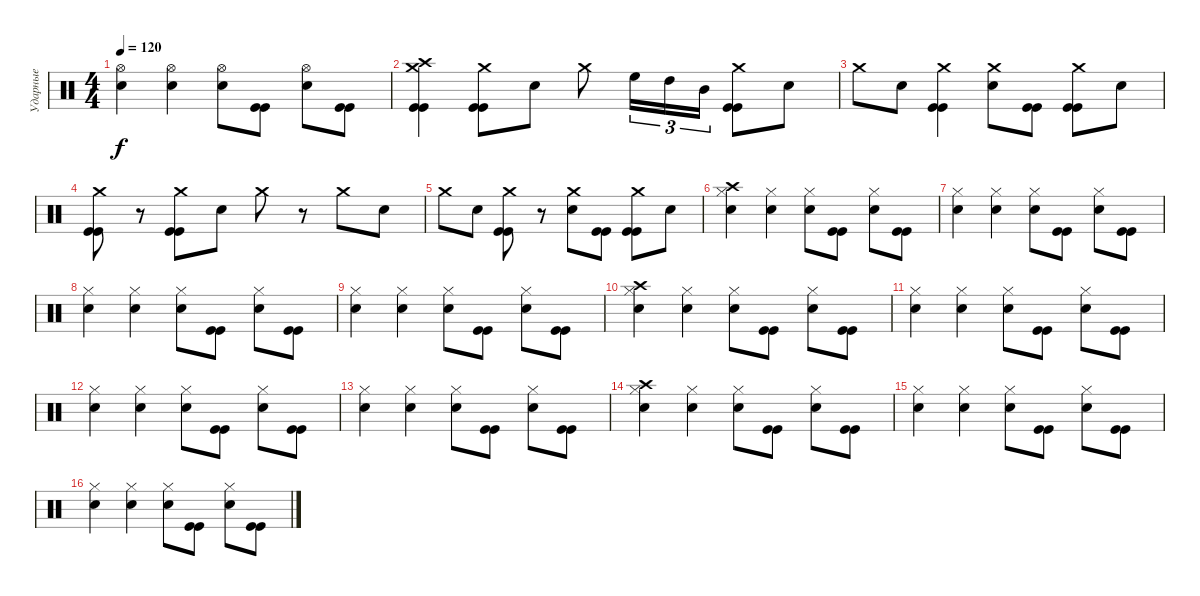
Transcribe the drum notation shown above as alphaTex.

\track ("Ударные" "Ударные") {instrument percussion}
\staff {score}
\articulation defaults
\ts (4 4)
\tempo 120
\clef neutral
\ks c
("Hi-Hat (open)" "Electric Snare (hit)").4{dy f} ("Hi-Hat (open)" "Electric Snare (hit)").4 ("Hi-Hat (open)" "Electric Snare (hit)").8 ("Kick (hit)" "Kick (hit)").8 ("Hi-Hat (open)" "Electric Snare (hit)").8 ("Kick (hit)" "Kick (hit)").8 |
("Crash high (hit)" "Crash medium (hit)" "Kick (hit)" "Kick (hit)").4 ("Crash medium (hit)" "Kick (hit)" "Kick (hit)").8 "Electric Snare (hit)".8 "Crash medium (hit)".8 "High Floor Tom (hit)".16{tu (3 2)} "High Tom (hit)".16{tu (3 2)} "Mid Tom (hit)".16{tu (3 2)} ("Crash medium (hit)" "Kick (hit)" "Kick (hit)").8 "Electric Snare (hit)".8 |
"Crash medium (hit)".8 "Electric Snare (hit)".8 ("Crash medium (hit)" "Kick (hit)" "Kick (hit)").4 ("Crash medium (hit)" "Electric Snare (hit)").8 ("Kick (hit)" "Kick (hit)").8 ("Crash medium (hit)" "Kick (hit)" "Kick (hit)").8 "Electric Snare (hit)".8 |
("Crash medium (hit)" "Kick (hit)" "Kick (hit)").8 r.8 ("Crash medium (hit)" "Kick (hit)" "Kick (hit)").8 "Electric Snare (hit)".8 "Crash medium (hit)".8 r.8 "Crash medium (hit)".8 "Electric Snare (hit)".8 |
"Crash medium (hit)".8 "Electric Snare (hit)".8 ("Crash medium (hit)" "Kick (hit)" "Kick (hit)").8 r.8 ("Crash medium (hit)" "Electric Snare (hit)").8 ("Kick (hit)" "Kick (hit)").8 ("Crash medium (hit)" "Kick (hit)" "Kick (hit)").8 "Electric Snare (hit)".8 |
("Crash high (hit)" "Hi-Hat (closed)" "Electric Snare (hit)").4 ("Hi-Hat (closed)" "Electric Snare (hit)").4 ("Hi-Hat (closed)" "Electric Snare (hit)").8 ("Kick (hit)" "Kick (hit)").8 ("Hi-Hat (closed)" "Electric Snare (hit)").8 ("Kick (hit)" "Kick (hit)").8 |
("Hi-Hat (closed)" "Electric Snare (hit)").4 ("Hi-Hat (closed)" "Electric Snare (hit)").4 ("Hi-Hat (closed)" "Electric Snare (hit)").8 ("Kick (hit)" "Kick (hit)").8 ("Hi-Hat (closed)" "Electric Snare (hit)").8 ("Kick (hit)" "Kick (hit)").8 |
("Hi-Hat (closed)" "Electric Snare (hit)").4 ("Hi-Hat (closed)" "Electric Snare (hit)").4 ("Hi-Hat (closed)" "Electric Snare (hit)").8 ("Kick (hit)" "Kick (hit)").8 ("Hi-Hat (closed)" "Electric Snare (hit)").8 ("Kick (hit)" "Kick (hit)").8 |
("Hi-Hat (closed)" "Electric Snare (hit)").4 ("Hi-Hat (closed)" "Electric Snare (hit)").4 ("Hi-Hat (closed)" "Electric Snare (hit)").8 ("Kick (hit)" "Kick (hit)").8 ("Hi-Hat (closed)" "Electric Snare (hit)").8 ("Kick (hit)" "Kick (hit)").8 |
("Crash high (hit)" "Hi-Hat (closed)" "Electric Snare (hit)").4 ("Hi-Hat (closed)" "Electric Snare (hit)").4 ("Hi-Hat (closed)" "Electric Snare (hit)").8 ("Kick (hit)" "Kick (hit)").8 ("Hi-Hat (closed)" "Electric Snare (hit)").8 ("Kick (hit)" "Kick (hit)").8 |
("Hi-Hat (closed)" "Electric Snare (hit)").4 ("Hi-Hat (closed)" "Electric Snare (hit)").4 ("Hi-Hat (closed)" "Electric Snare (hit)").8 ("Kick (hit)" "Kick (hit)").8 ("Hi-Hat (closed)" "Electric Snare (hit)").8 ("Kick (hit)" "Kick (hit)").8 |
("Hi-Hat (closed)" "Electric Snare (hit)").4 ("Hi-Hat (closed)" "Electric Snare (hit)").4 ("Hi-Hat (closed)" "Electric Snare (hit)").8 ("Kick (hit)" "Kick (hit)").8 ("Hi-Hat (closed)" "Electric Snare (hit)").8 ("Kick (hit)" "Kick (hit)").8 |
("Hi-Hat (closed)" "Electric Snare (hit)").4 ("Hi-Hat (closed)" "Electric Snare (hit)").4 ("Hi-Hat (closed)" "Electric Snare (hit)").8 ("Kick (hit)" "Kick (hit)").8 ("Hi-Hat (closed)" "Electric Snare (hit)").8 ("Kick (hit)" "Kick (hit)").8 |
("Crash high (hit)" "Hi-Hat (closed)" "Electric Snare (hit)").4 ("Hi-Hat (closed)" "Electric Snare (hit)").4 ("Hi-Hat (closed)" "Electric Snare (hit)").8 ("Kick (hit)" "Kick (hit)").8 ("Hi-Hat (closed)" "Electric Snare (hit)").8 ("Kick (hit)" "Kick (hit)").8 |
("Hi-Hat (closed)" "Electric Snare (hit)").4 ("Hi-Hat (closed)" "Electric Snare (hit)").4 ("Hi-Hat (closed)" "Electric Snare (hit)").8 ("Kick (hit)" "Kick (hit)").8 ("Hi-Hat (closed)" "Electric Snare (hit)").8 ("Kick (hit)" "Kick (hit)").8 |
("Hi-Hat (closed)" "Electric Snare (hit)").4 ("Hi-Hat (closed)" "Electric Snare (hit)").4 ("Hi-Hat (closed)" "Electric Snare (hit)").8 ("Kick (hit)" "Kick (hit)").8 ("Hi-Hat (closed)" "Electric Snare (hit)").8 ("Kick (hit)" "Kick (hit)").8
